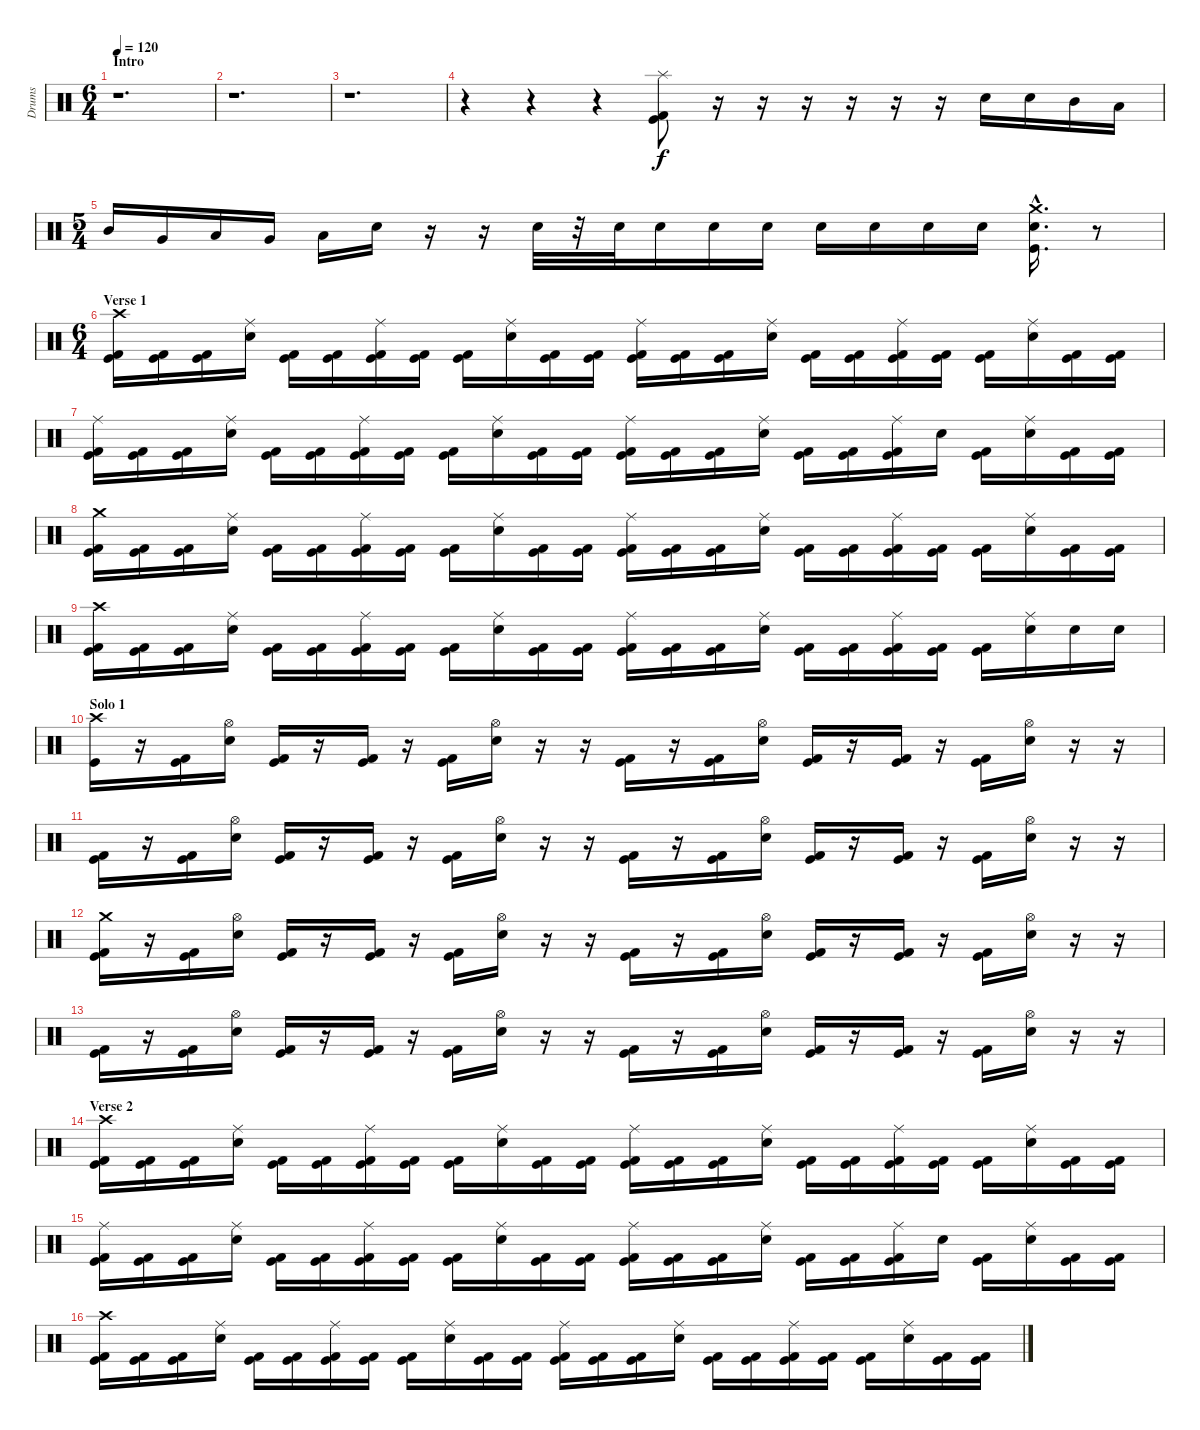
\track ("Drums" "Drums") {instrument percussion}
\staff {score}
\articulation defaults
\ts (6 4)
\section ("" "Intro")
\tempo 120
\clef neutral
\ks c
r.1{d dy f} |
r.1{d} |
r.1{d} |
r.4 r.4 r.4 ("Splash (hit)" "Kick (hit)" "Kick (hit) 2").8 r.16 r.16 r.16 r.16 r.16 r.16 "Electric Snare (hit)".16 "Electric Snare (hit)".16 "Mid Tom (hit)".16 "Low Tom (hit)".16 |
\ts (5 4)
"Mid Tom (hit)".16 "Very Low Tom (hit)".16 "Low Tom (hit)".16 "Very Low Tom (hit)".16 "Low Tom (hit)".16 "Electric Snare (hit)".16 r.16 r.16 "Electric Snare (hit)".32 r.32 "Electric Snare (hit)".32 "Electric Snare (hit)".16 "Electric Snare (hit)".16 "Electric Snare (hit)".16 "Electric Snare (hit)".16 "Electric Snare (hit)".16 "Electric Snare (hit)".16 "Electric Snare (hit)".16 ("Crash medium (hit)"{hac} "Electric Snare (hit)"{hac} "Kick (hit)"{hac}).16{d} r.8 |
\ts (6 4)
\section ("" "Verse 1")
("Crash high (hit)" "Kick (hit) 2" "Kick (hit)").16 ("Kick (hit) 2" "Kick (hit)").16 ("Kick (hit) 2" "Kick (hit)").16 ("Ride (middle)" "Electric Snare (hit)").16 ("Kick (hit) 2" "Kick (hit)").16 ("Kick (hit) 2" "Kick (hit)").16 ("Ride (middle)" "Kick (hit) 2" "Kick (hit)").16 ("Kick (hit) 2" "Kick (hit)").16 ("Kick (hit) 2" "Kick (hit)").16 ("Ride (middle)" "Electric Snare (hit)").16 ("Kick (hit) 2" "Kick (hit)").16 ("Kick (hit) 2" "Kick (hit)").16 ("Ride (middle)" "Kick (hit) 2" "Kick (hit)").16 ("Kick (hit) 2" "Kick (hit)").16 ("Kick (hit) 2" "Kick (hit)").16 ("Ride (middle)" "Electric Snare (hit)").16 ("Kick (hit) 2" "Kick (hit)").16 ("Kick (hit) 2" "Kick (hit)").16 ("Ride (middle)" "Kick (hit) 2" "Kick (hit)").16 ("Kick (hit) 2" "Kick (hit)").16 ("Kick (hit) 2" "Kick (hit)").16 ("Ride (middle)" "Electric Snare (hit)").16 ("Kick (hit) 2" "Kick (hit)").16 ("Kick (hit) 2" "Kick (hit)").16 |
("Ride (middle)" "Kick (hit) 2" "Kick (hit)").16 ("Kick (hit) 2" "Kick (hit)").16 ("Kick (hit) 2" "Kick (hit)").16 ("Ride (middle)" "Electric Snare (hit)").16 ("Kick (hit) 2" "Kick (hit)").16 ("Kick (hit) 2" "Kick (hit)").16 ("Ride (middle)" "Kick (hit) 2" "Kick (hit)").16 ("Kick (hit) 2" "Kick (hit)").16 ("Kick (hit) 2" "Kick (hit)").16 ("Ride (middle)" "Electric Snare (hit)").16 ("Kick (hit) 2" "Kick (hit)").16 ("Kick (hit) 2" "Kick (hit)").16 ("Ride (middle)" "Kick (hit) 2" "Kick (hit)").16 ("Kick (hit) 2" "Kick (hit)").16 ("Kick (hit) 2" "Kick (hit)").16 ("Ride (middle)" "Electric Snare (hit)").16 ("Kick (hit) 2" "Kick (hit)").16 ("Kick (hit) 2" "Kick (hit)").16 ("Ride (middle)" "Kick (hit) 2" "Kick (hit)").16 "Electric Snare (hit)".16 ("Kick (hit) 2" "Kick (hit)").16 ("Ride (middle)" "Electric Snare (hit)").16 ("Kick (hit) 2" "Kick (hit)").16 ("Kick (hit) 2" "Kick (hit)").16 |
("Crash medium (hit)" "Kick (hit) 2" "Kick (hit)").16 ("Kick (hit) 2" "Kick (hit)").16 ("Kick (hit) 2" "Kick (hit)").16 ("Ride (middle)" "Electric Snare (hit)").16 ("Kick (hit) 2" "Kick (hit)").16 ("Kick (hit) 2" "Kick (hit)").16 ("Ride (middle)" "Kick (hit) 2" "Kick (hit)").16 ("Kick (hit) 2" "Kick (hit)").16 ("Kick (hit) 2" "Kick (hit)").16 ("Ride (middle)" "Electric Snare (hit)").16 ("Kick (hit) 2" "Kick (hit)").16 ("Kick (hit) 2" "Kick (hit)").16 ("Ride (middle)" "Kick (hit) 2" "Kick (hit)").16 ("Kick (hit) 2" "Kick (hit)").16 ("Kick (hit) 2" "Kick (hit)").16 ("Ride (middle)" "Electric Snare (hit)").16 ("Kick (hit) 2" "Kick (hit)").16 ("Kick (hit) 2" "Kick (hit)").16 ("Ride (middle)" "Kick (hit) 2" "Kick (hit)").16 ("Kick (hit) 2" "Kick (hit)").16 ("Kick (hit) 2" "Kick (hit)").16 ("Ride (middle)" "Electric Snare (hit)").16 ("Kick (hit) 2" "Kick (hit)").16 ("Kick (hit) 2" "Kick (hit)").16 |
("Crash high (hit)" "Kick (hit) 2" "Kick (hit)").16 ("Kick (hit) 2" "Kick (hit)").16 ("Kick (hit) 2" "Kick (hit)").16 ("Ride (middle)" "Electric Snare (hit)").16 ("Kick (hit) 2" "Kick (hit)").16 ("Kick (hit) 2" "Kick (hit)").16 ("Ride (middle)" "Kick (hit) 2" "Kick (hit)").16 ("Kick (hit) 2" "Kick (hit)").16 ("Kick (hit) 2" "Kick (hit)").16 ("Ride (middle)" "Electric Snare (hit)").16 ("Kick (hit) 2" "Kick (hit)").16 ("Kick (hit) 2" "Kick (hit)").16 ("Ride (middle)" "Kick (hit) 2" "Kick (hit)").16 ("Kick (hit) 2" "Kick (hit)").16 ("Kick (hit) 2" "Kick (hit)").16 ("Ride (middle)" "Electric Snare (hit)").16 ("Kick (hit) 2" "Kick (hit)").16 ("Kick (hit) 2" "Kick (hit)").16 ("Ride (middle)" "Kick (hit) 2" "Kick (hit)").16 ("Kick (hit) 2" "Kick (hit)").16 ("Kick (hit) 2" "Kick (hit)").16 ("Ride (middle)" "Electric Snare (hit)").16 "Electric Snare (hit)".16 "Electric Snare (hit)".16 |
\section ("" "Solo 1")
("Crash high (hit)" "Kick (hit)").16 r.16 ("Kick (hit)" "Kick (hit) 2").16 ("Hi-Hat (open)" "Electric Snare (hit)").16 ("Kick (hit) 2" "Kick (hit)").16 r.16 ("Kick (hit) 2" "Kick (hit)").16 r.16 ("Kick (hit) 2" "Kick (hit)").16 ("Hi-Hat (open)" "Electric Snare (hit)").16 r.16 r.16 ("Kick (hit) 2" "Kick (hit)").16 r.16 ("Kick (hit) 2" "Kick (hit)").16 ("Hi-Hat (open)" "Electric Snare (hit)").16 ("Kick (hit) 2" "Kick (hit)").16 r.16 ("Kick (hit) 2" "Kick (hit)").16 r.16 ("Kick (hit) 2" "Kick (hit)").16 ("Hi-Hat (open)" "Electric Snare (hit)").16 r.16 r.16 |
("Kick (hit) 2" "Kick (hit)").16 r.16 ("Kick (hit) 2" "Kick (hit)").16 ("Hi-Hat (open)" "Electric Snare (hit)").16 ("Kick (hit) 2" "Kick (hit)").16 r.16 ("Kick (hit) 2" "Kick (hit)").16 r.16 ("Kick (hit) 2" "Kick (hit)").16 ("Hi-Hat (open)" "Electric Snare (hit)").16 r.16 r.16 ("Kick (hit) 2" "Kick (hit)").16 r.16 ("Kick (hit) 2" "Kick (hit)").16 ("Hi-Hat (open)" "Electric Snare (hit)").16 ("Kick (hit) 2" "Kick (hit)").16 r.16 ("Kick (hit) 2" "Kick (hit)").16 r.16 ("Kick (hit) 2" "Kick (hit)").16 ("Hi-Hat (open)" "Electric Snare (hit)").16 r.16 r.16 |
("Crash medium (hit)" "Kick (hit) 2" "Kick (hit)").16 r.16 ("Kick (hit) 2" "Kick (hit)").16 ("Hi-Hat (open)" "Electric Snare (hit)").16 ("Kick (hit) 2" "Kick (hit)").16 r.16 ("Kick (hit) 2" "Kick (hit)").16 r.16 ("Kick (hit) 2" "Kick (hit)").16 ("Hi-Hat (open)" "Electric Snare (hit)").16 r.16 r.16 ("Kick (hit) 2" "Kick (hit)").16 r.16 ("Kick (hit) 2" "Kick (hit)").16 ("Hi-Hat (open)" "Electric Snare (hit)").16 ("Kick (hit) 2" "Kick (hit)").16 r.16 ("Kick (hit) 2" "Kick (hit)").16 r.16 ("Kick (hit) 2" "Kick (hit)").16 ("Hi-Hat (open)" "Electric Snare (hit)").16 r.16 r.16 |
("Kick (hit) 2" "Kick (hit)").16 r.16 ("Kick (hit) 2" "Kick (hit)").16 ("Hi-Hat (open)" "Electric Snare (hit)").16 ("Kick (hit) 2" "Kick (hit)").16 r.16 ("Kick (hit) 2" "Kick (hit)").16 r.16 ("Kick (hit) 2" "Kick (hit)").16 ("Hi-Hat (open)" "Electric Snare (hit)").16 r.16 r.16 ("Kick (hit) 2" "Kick (hit)").16 r.16 ("Kick (hit) 2" "Kick (hit)").16 ("Hi-Hat (open)" "Electric Snare (hit)").16 ("Kick (hit) 2" "Kick (hit)").16 r.16 ("Kick (hit) 2" "Kick (hit)").16 r.16 ("Kick (hit) 2" "Kick (hit)").16 ("Hi-Hat (open)" "Electric Snare (hit)").16 r.16 r.16 |
\section ("" "Verse 2")
("Crash high (hit)" "Kick (hit) 2" "Kick (hit)").16 ("Kick (hit) 2" "Kick (hit)").16 ("Kick (hit) 2" "Kick (hit)").16 ("Ride (middle)" "Electric Snare (hit)").16 ("Kick (hit) 2" "Kick (hit)").16 ("Kick (hit) 2" "Kick (hit)").16 ("Ride (middle)" "Kick (hit) 2" "Kick (hit)").16 ("Kick (hit) 2" "Kick (hit)").16 ("Kick (hit) 2" "Kick (hit)").16 ("Ride (middle)" "Electric Snare (hit)").16 ("Kick (hit) 2" "Kick (hit)").16 ("Kick (hit) 2" "Kick (hit)").16 ("Ride (middle)" "Kick (hit) 2" "Kick (hit)").16 ("Kick (hit) 2" "Kick (hit)").16 ("Kick (hit) 2" "Kick (hit)").16 ("Ride (middle)" "Electric Snare (hit)").16 ("Kick (hit) 2" "Kick (hit)").16 ("Kick (hit) 2" "Kick (hit)").16 ("Ride (middle)" "Kick (hit) 2" "Kick (hit)").16 ("Kick (hit) 2" "Kick (hit)").16 ("Kick (hit) 2" "Kick (hit)").16 ("Ride (middle)" "Electric Snare (hit)").16 ("Kick (hit) 2" "Kick (hit)").16 ("Kick (hit) 2" "Kick (hit)").16 |
("Ride (middle)" "Kick (hit) 2" "Kick (hit)").16 ("Kick (hit) 2" "Kick (hit)").16 ("Kick (hit) 2" "Kick (hit)").16 ("Ride (middle)" "Electric Snare (hit)").16 ("Kick (hit) 2" "Kick (hit)").16 ("Kick (hit) 2" "Kick (hit)").16 ("Ride (middle)" "Kick (hit) 2" "Kick (hit)").16 ("Kick (hit) 2" "Kick (hit)").16 ("Kick (hit) 2" "Kick (hit)").16 ("Ride (middle)" "Electric Snare (hit)").16 ("Kick (hit) 2" "Kick (hit)").16 ("Kick (hit) 2" "Kick (hit)").16 ("Ride (middle)" "Kick (hit) 2" "Kick (hit)").16 ("Kick (hit) 2" "Kick (hit)").16 ("Kick (hit) 2" "Kick (hit)").16 ("Ride (middle)" "Electric Snare (hit)").16 ("Kick (hit) 2" "Kick (hit)").16 ("Kick (hit) 2" "Kick (hit)").16 ("Ride (middle)" "Kick (hit) 2" "Kick (hit)").16 "Electric Snare (hit)".16 ("Kick (hit) 2" "Kick (hit)").16 ("Ride (middle)" "Electric Snare (hit)").16 ("Kick (hit) 2" "Kick (hit)").16 ("Kick (hit) 2" "Kick (hit)").16 |
("Crash high (hit)" "Kick (hit) 2" "Kick (hit)").16 ("Kick (hit) 2" "Kick (hit)").16 ("Kick (hit) 2" "Kick (hit)").16 ("Ride (middle)" "Electric Snare (hit)").16 ("Kick (hit) 2" "Kick (hit)").16 ("Kick (hit) 2" "Kick (hit)").16 ("Ride (middle)" "Kick (hit) 2" "Kick (hit)").16 ("Kick (hit) 2" "Kick (hit)").16 ("Kick (hit) 2" "Kick (hit)").16 ("Ride (middle)" "Electric Snare (hit)").16 ("Kick (hit) 2" "Kick (hit)").16 ("Kick (hit) 2" "Kick (hit)").16 ("Ride (middle)" "Kick (hit) 2" "Kick (hit)").16 ("Kick (hit) 2" "Kick (hit)").16 ("Kick (hit) 2" "Kick (hit)").16 ("Ride (middle)" "Electric Snare (hit)").16 ("Kick (hit) 2" "Kick (hit)").16 ("Kick (hit) 2" "Kick (hit)").16 ("Ride (middle)" "Kick (hit) 2" "Kick (hit)").16 ("Kick (hit) 2" "Kick (hit)").16 ("Kick (hit) 2" "Kick (hit)").16 ("Ride (middle)" "Electric Snare (hit)").16 ("Kick (hit) 2" "Kick (hit)").16 ("Kick (hit) 2" "Kick (hit)").16
